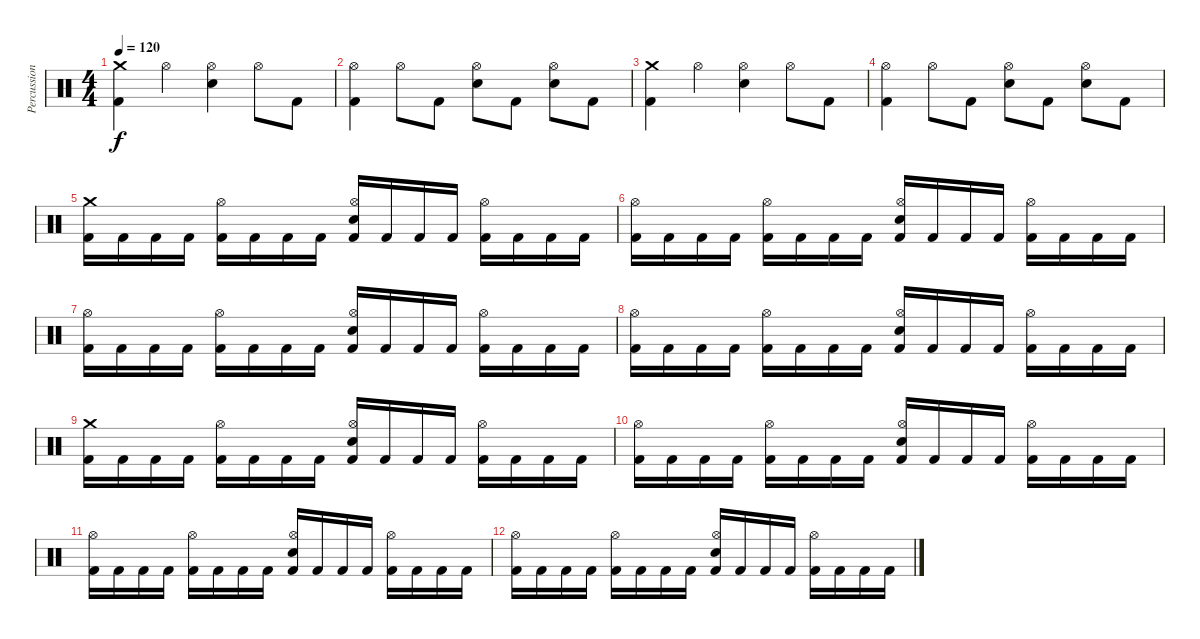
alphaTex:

\track ("Percussions" "Percussion") {instrument percussion}
\staff {score}
\articulation defaults
\ts (4 4)
\tempo 120
\clef neutral
\ks c
("Crash medium (hit)" "Kick (hit) 2").4{dy f} "Hi-Hat (open)".4 ("Hi-Hat (open)" "Electric Snare (hit)").4 "Hi-Hat (open)".8 "Kick (hit) 2".8 |
("Hi-Hat (open)" "Kick (hit) 2").4 "Hi-Hat (open)".8 "Kick (hit) 2".8 ("Hi-Hat (open)" "Electric Snare (hit)").8 "Kick (hit) 2".8 ("Hi-Hat (open)" "Electric Snare (hit)").8 "Kick (hit) 2".8 |
("Crash medium (hit)" "Kick (hit) 2").4 "Hi-Hat (open)".4 ("Hi-Hat (open)" "Electric Snare (hit)").4 "Hi-Hat (open)".8 "Kick (hit) 2".8 |
("Hi-Hat (open)" "Kick (hit) 2").4 "Hi-Hat (open)".8 "Kick (hit) 2".8 ("Hi-Hat (open)" "Electric Snare (hit)").8 "Kick (hit) 2".8 ("Hi-Hat (open)" "Electric Snare (hit)").8 "Kick (hit) 2".8 |
("Crash medium (hit)" "Kick (hit) 2").16 "Kick (hit) 2".16 "Kick (hit) 2".16 "Kick (hit) 2".16 ("Hi-Hat (open)" "Kick (hit) 2").16 "Kick (hit) 2".16 "Kick (hit) 2".16 "Kick (hit) 2".16 ("Hi-Hat (open)" "Electric Snare (hit)" "Kick (hit) 2").16 "Kick (hit) 2".16 "Kick (hit) 2".16 "Kick (hit) 2".16 ("Hi-Hat (open)" "Kick (hit) 2").16 "Kick (hit) 2".16 "Kick (hit) 2".16 "Kick (hit) 2".16 |
("Hi-Hat (open)" "Kick (hit) 2").16 "Kick (hit) 2".16 "Kick (hit) 2".16 "Kick (hit) 2".16 ("Hi-Hat (open)" "Kick (hit) 2").16 "Kick (hit) 2".16 "Kick (hit) 2".16 "Kick (hit) 2".16 ("Hi-Hat (open)" "Electric Snare (hit)" "Kick (hit) 2").16 "Kick (hit) 2".16 "Kick (hit) 2".16 "Kick (hit) 2".16 ("Hi-Hat (open)" "Kick (hit) 2").16 "Kick (hit) 2".16 "Kick (hit) 2".16 "Kick (hit) 2".16 |
("Hi-Hat (open)" "Kick (hit) 2").16 "Kick (hit) 2".16 "Kick (hit) 2".16 "Kick (hit) 2".16 ("Hi-Hat (open)" "Kick (hit) 2").16 "Kick (hit) 2".16 "Kick (hit) 2".16 "Kick (hit) 2".16 ("Hi-Hat (open)" "Electric Snare (hit)" "Kick (hit) 2").16 "Kick (hit) 2".16 "Kick (hit) 2".16 "Kick (hit) 2".16 ("Hi-Hat (open)" "Kick (hit) 2").16 "Kick (hit) 2".16 "Kick (hit) 2".16 "Kick (hit) 2".16 |
("Hi-Hat (open)" "Kick (hit) 2").16 "Kick (hit) 2".16 "Kick (hit) 2".16 "Kick (hit) 2".16 ("Hi-Hat (open)" "Kick (hit) 2").16 "Kick (hit) 2".16 "Kick (hit) 2".16 "Kick (hit) 2".16 ("Hi-Hat (open)" "Electric Snare (hit)" "Kick (hit) 2").16 "Kick (hit) 2".16 "Kick (hit) 2".16 "Kick (hit) 2".16 ("Hi-Hat (open)" "Kick (hit) 2").16 "Kick (hit) 2".16 "Kick (hit) 2".16 "Kick (hit) 2".16 |
("Crash medium (hit)" "Kick (hit) 2").16 "Kick (hit) 2".16 "Kick (hit) 2".16 "Kick (hit) 2".16 ("Hi-Hat (open)" "Kick (hit) 2").16 "Kick (hit) 2".16 "Kick (hit) 2".16 "Kick (hit) 2".16 ("Hi-Hat (open)" "Electric Snare (hit)" "Kick (hit) 2").16 "Kick (hit) 2".16 "Kick (hit) 2".16 "Kick (hit) 2".16 ("Hi-Hat (open)" "Kick (hit) 2").16 "Kick (hit) 2".16 "Kick (hit) 2".16 "Kick (hit) 2".16 |
("Hi-Hat (open)" "Kick (hit) 2").16 "Kick (hit) 2".16 "Kick (hit) 2".16 "Kick (hit) 2".16 ("Hi-Hat (open)" "Kick (hit) 2").16 "Kick (hit) 2".16 "Kick (hit) 2".16 "Kick (hit) 2".16 ("Hi-Hat (open)" "Electric Snare (hit)" "Kick (hit) 2").16 "Kick (hit) 2".16 "Kick (hit) 2".16 "Kick (hit) 2".16 ("Hi-Hat (open)" "Kick (hit) 2").16 "Kick (hit) 2".16 "Kick (hit) 2".16 "Kick (hit) 2".16 |
("Hi-Hat (open)" "Kick (hit) 2").16 "Kick (hit) 2".16 "Kick (hit) 2".16 "Kick (hit) 2".16 ("Hi-Hat (open)" "Kick (hit) 2").16 "Kick (hit) 2".16 "Kick (hit) 2".16 "Kick (hit) 2".16 ("Hi-Hat (open)" "Electric Snare (hit)" "Kick (hit) 2").16 "Kick (hit) 2".16 "Kick (hit) 2".16 "Kick (hit) 2".16 ("Hi-Hat (open)" "Kick (hit) 2").16 "Kick (hit) 2".16 "Kick (hit) 2".16 "Kick (hit) 2".16 |
("Hi-Hat (open)" "Kick (hit) 2").16 "Kick (hit) 2".16 "Kick (hit) 2".16 "Kick (hit) 2".16 ("Hi-Hat (open)" "Kick (hit) 2").16 "Kick (hit) 2".16 "Kick (hit) 2".16 "Kick (hit) 2".16 ("Hi-Hat (open)" "Electric Snare (hit)" "Kick (hit) 2").16 "Kick (hit) 2".16 "Kick (hit) 2".16 "Kick (hit) 2".16 ("Hi-Hat (open)" "Kick (hit) 2").16 "Kick (hit) 2".16 "Kick (hit) 2".16 "Kick (hit) 2".16
